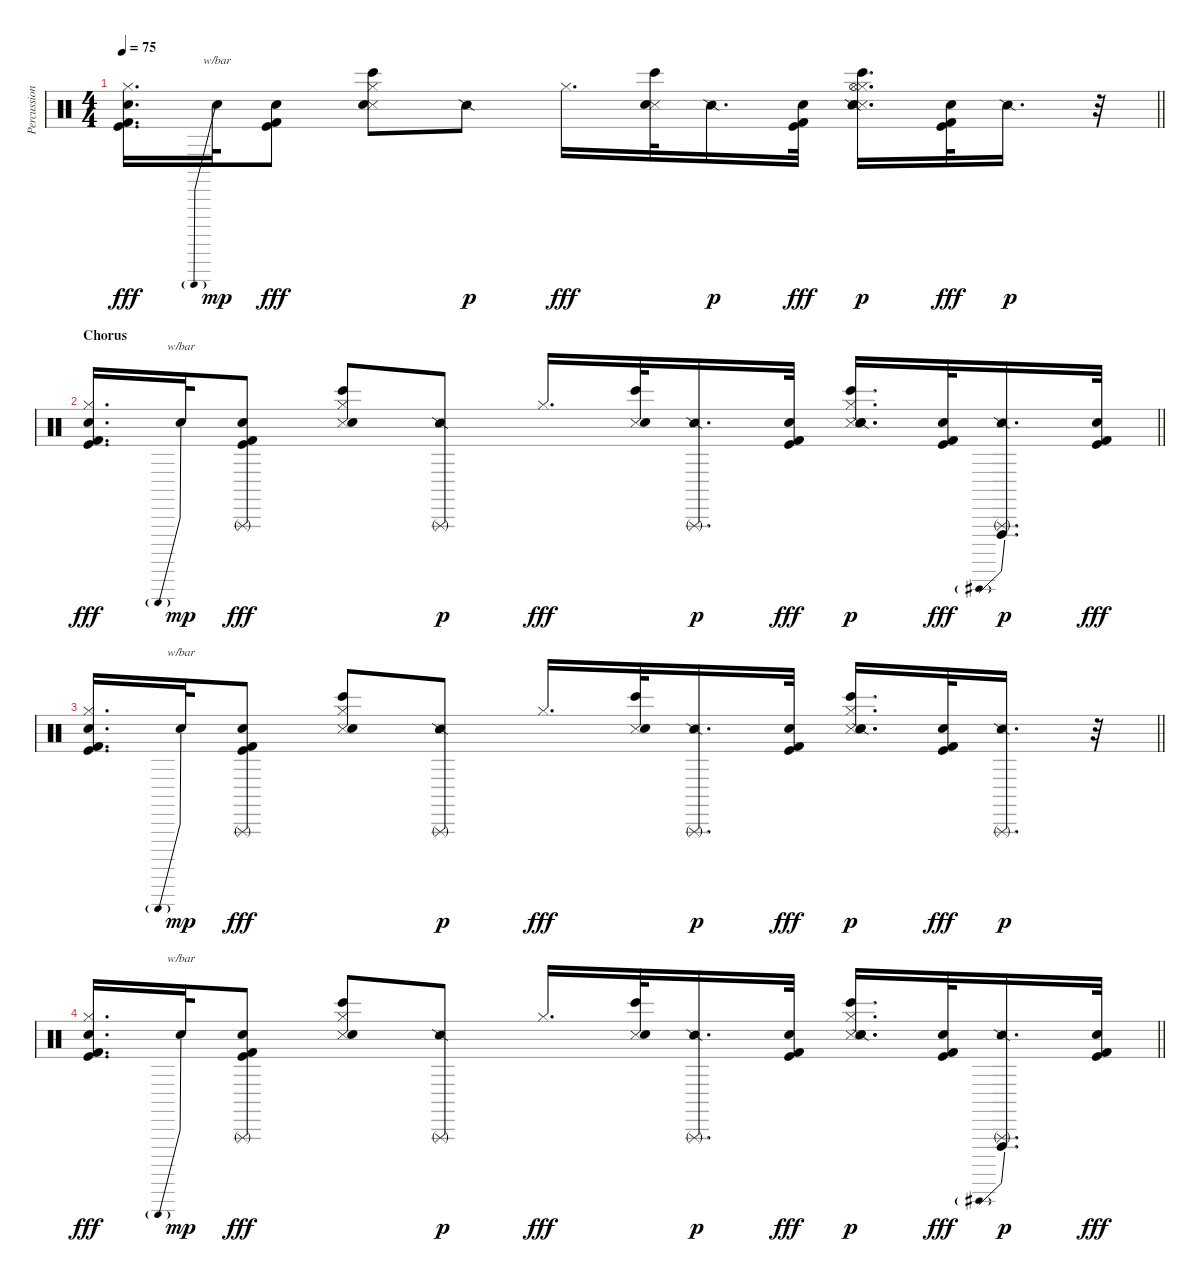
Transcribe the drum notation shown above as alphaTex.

\track ("Percussion" "Percussion") {instrument percussion}
\staff {score}
\articulation defaults
\ts (4 4)
\tempo 75
\clef neutral
\barLineRight lightlight
\ks c
("Hi-Hat (closed)" "Snare (hit) 2" "Kick (hit)" "Kick (hit) 2").16{d dy fff} "Hand Clap (hit)".32{tbe (predive default 0 24 60 24) dy mp} ("Snare (hit) 2" "Kick (hit)" "Kick (hit) 2").8{dy fff} ("Hi-Hat (closed)" "Snare (side stick) 3" "Snare (hit) 2" "Bongo High (hit)").8 "Snare (side stick) 2".8{dy p} "Hi-Hat (closed)".16{d dy fff} ("Snare (side stick) 3" "Snare (hit) 2" "Bongo High (hit)").32 "Snare (side stick) 2".16{d dy p} ("Snare (hit) 2" "Kick (hit)" "Kick (hit) 2").32{dy fff} ("Hi-Hat (closed)" "Snare (side stick) 3" "Snare (hit) 2" "Bongo High (hit)" "Snare (side stick) 2" "Hi-Hat (open)").16{d dy p} ("Snare (hit) 2" "Kick (hit)" "Kick (hit) 2").32{dy fff} "Snare (side stick) 2".16{d dy p} r.32 |
\section ("" "Chorus")
\barLineRight lightlight
("Hi-Hat (closed)" "Snare (hit) 2" "Kick (hit)" "Kick (hit) 2").16{d dy fff} "Hand Clap (hit)".32{tbe (predive default 0 24 60 24) dy mp} ("Triangle (rnute)" "Snare (hit) 2" "Kick (hit)" "Kick (hit) 2").8{dy fff} ("Hi-Hat (closed)" "Snare (side stick) 3" "Snare (hit) 2" "Bongo High (hit)").8 ("Triangle (rnute)" "Snare (side stick) 2").8{dy p} "Hi-Hat (closed)".16{d dy fff} ("Snare (side stick) 3" "Snare (hit) 2" "Bongo High (hit)").32 ("Triangle (rnute)" "Snare (side stick) 2").16{d dy p} ("Snare (hit) 2" "Kick (hit)" "Kick (hit) 2").32{dy fff} ("Hi-Hat (closed)" "Snare (side stick) 3" "Snare (hit) 2" "Bongo High (hit)" "Snare (side stick) 2").16{d dy p} ("Snare (hit) 2" "Kick (hit)" "Kick (hit) 2").32{dy fff} ("Triangle (rnute)" "Snare (side stick) 2" "Vibraslap (hit)"{be (prebend 0 12 60 12)}).16{d dy p} ("Snare (hit) 2" "Kick (hit)" "Kick (hit) 2").32{dy fff} |
\barLineRight lightlight
("Hi-Hat (closed)" "Snare (hit) 2" "Kick (hit)" "Kick (hit) 2").16{d} "Hand Clap (hit)".32{tbe (predive default 0 24 60 24) dy mp} ("Triangle (rnute)" "Snare (hit) 2" "Kick (hit)" "Kick (hit) 2").8{dy fff} ("Hi-Hat (closed)" "Snare (side stick) 3" "Snare (hit) 2" "Bongo High (hit)").8 ("Triangle (rnute)" "Snare (side stick) 2").8{dy p} "Hi-Hat (closed)".16{d dy fff} ("Snare (side stick) 3" "Snare (hit) 2" "Bongo High (hit)").32 ("Triangle (rnute)" "Snare (side stick) 2").16{d dy p} ("Snare (hit) 2" "Kick (hit)" "Kick (hit) 2").32{dy fff} ("Hi-Hat (closed)" "Snare (side stick) 3" "Snare (hit) 2" "Bongo High (hit)" "Snare (side stick) 2").16{d dy p} ("Snare (hit) 2" "Kick (hit)" "Kick (hit) 2").32{dy fff} ("Triangle (rnute)" "Snare (side stick) 2").16{d dy p} r.32 |
\barLineRight lightlight
("Hi-Hat (closed)" "Snare (hit) 2" "Kick (hit)" "Kick (hit) 2").16{d dy fff} "Hand Clap (hit)".32{tbe (predive default 0 24 60 24) dy mp} ("Triangle (rnute)" "Snare (hit) 2" "Kick (hit)" "Kick (hit) 2").8{dy fff} ("Hi-Hat (closed)" "Snare (side stick) 3" "Snare (hit) 2" "Bongo High (hit)").8 ("Triangle (rnute)" "Snare (side stick) 2").8{dy p} "Hi-Hat (closed)".16{d dy fff} ("Snare (side stick) 3" "Snare (hit) 2" "Bongo High (hit)").32 ("Triangle (rnute)" "Snare (side stick) 2").16{d dy p} ("Snare (hit) 2" "Kick (hit)" "Kick (hit) 2").32{dy fff} ("Hi-Hat (closed)" "Snare (side stick) 3" "Snare (hit) 2" "Bongo High (hit)" "Snare (side stick) 2").16{d dy p} ("Snare (hit) 2" "Kick (hit)" "Kick (hit) 2").32{dy fff} ("Triangle (rnute)" "Snare (side stick) 2" "Vibraslap (hit)"{be (prebend 0 12 60 12)}).16{d dy p} ("Snare (hit) 2" "Kick (hit)" "Kick (hit) 2").32{dy fff}
